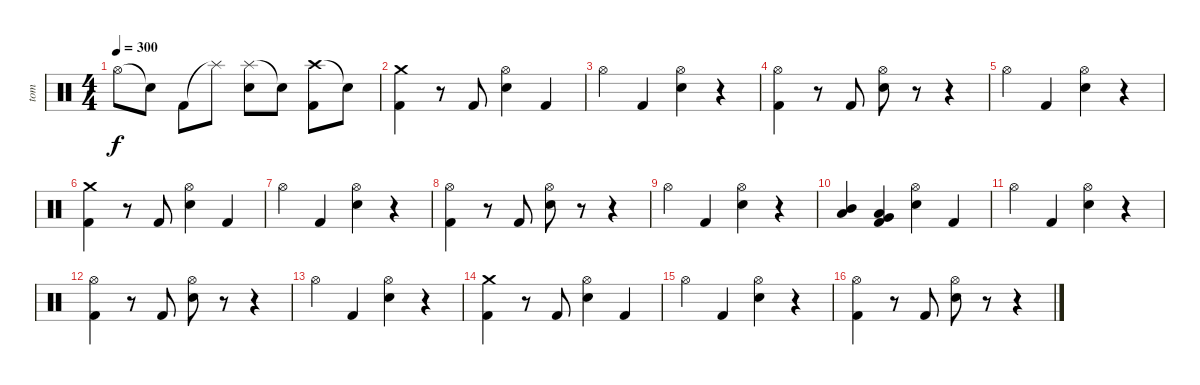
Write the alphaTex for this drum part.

\track ("tom" "tom") {instrument percussion}
\staff {score}
\articulation defaults
\ts (4 4)
\tempo 300
\clef neutral
\ks c "Hi-Hat (open)".8{dy f} "Snare (hit)"{t}.8 "Kick (hit) 2".8 "Splash (hit)"{t}.8
("Splash (hit)" "Electric Snare (hit)").8 "Snare (hit)"{t}.8 ("Crash high (hit)" "Kick (hit) 2").8 "Snare (hit)"{t}.8 |
("Crash medium (hit)" "Kick (hit) 2").4 r.8 "Kick (hit) 2".8 ("Hi-Hat (open)" "Electric Snare (hit)").4 "Kick (hit) 2".4 |
"Hi-Hat (open)".4 "Kick (hit) 2".4 ("Hi-Hat (open)" "Electric Snare (hit)").4 r.4 |
("Hi-Hat (open)" "Kick (hit) 2").4 r.8 "Kick (hit) 2".8 ("Hi-Hat (open)" "Electric Snare (hit)").8 r.8 r.4 |
"Hi-Hat (open)".4 "Kick (hit) 2".4 ("Hi-Hat (open)" "Electric Snare (hit)").4 r.4 |
("Crash medium (hit)" "Kick (hit) 2").4 r.8 "Kick (hit) 2".8 ("Hi-Hat (open)" "Electric Snare (hit)").4 "Kick (hit) 2".4 |
"Hi-Hat (open)".4 "Kick (hit) 2".4 ("Hi-Hat (open)" "Electric Snare (hit)").4 r.4 |
("Hi-Hat (open)" "Kick (hit) 2").4 r.8 "Kick (hit) 2".8 ("Hi-Hat (open)" "Electric Snare (hit)").8 r.8 r.4 |
"Hi-Hat (open)".4 "Kick (hit) 2".4 ("Hi-Hat (open)" "Electric Snare (hit)").4 r.4 |
("Low Tom (hit)" "Mid Tom (hit)").4 ("Kick (hit) 2" "Low Tom (hit)" "Very Low Tom (hit)").4 ("Hi-Hat (open)" "Electric Snare (hit)").4 "Kick (hit) 2".4 |
"Hi-Hat (open)".4 "Kick (hit) 2".4 ("Hi-Hat (open)" "Electric Snare (hit)").4 r.4 |
("Hi-Hat (open)" "Kick (hit) 2").4 r.8 "Kick (hit) 2".8 ("Hi-Hat (open)" "Electric Snare (hit)").8 r.8 r.4 |
"Hi-Hat (open)".4 "Kick (hit) 2".4 ("Hi-Hat (open)" "Electric Snare (hit)").4 r.4 |
("Crash medium (hit)" "Kick (hit) 2").4 r.8 "Kick (hit) 2".8 ("Hi-Hat (open)" "Electric Snare (hit)").4 "Kick (hit) 2".4 |
"Hi-Hat (open)".4 "Kick (hit) 2".4 ("Hi-Hat (open)" "Electric Snare (hit)").4 r.4 |
("Hi-Hat (open)" "Kick (hit) 2").4 r.8 "Kick (hit) 2".8 ("Hi-Hat (open)" "Electric Snare (hit)").8 r.8 r.4
